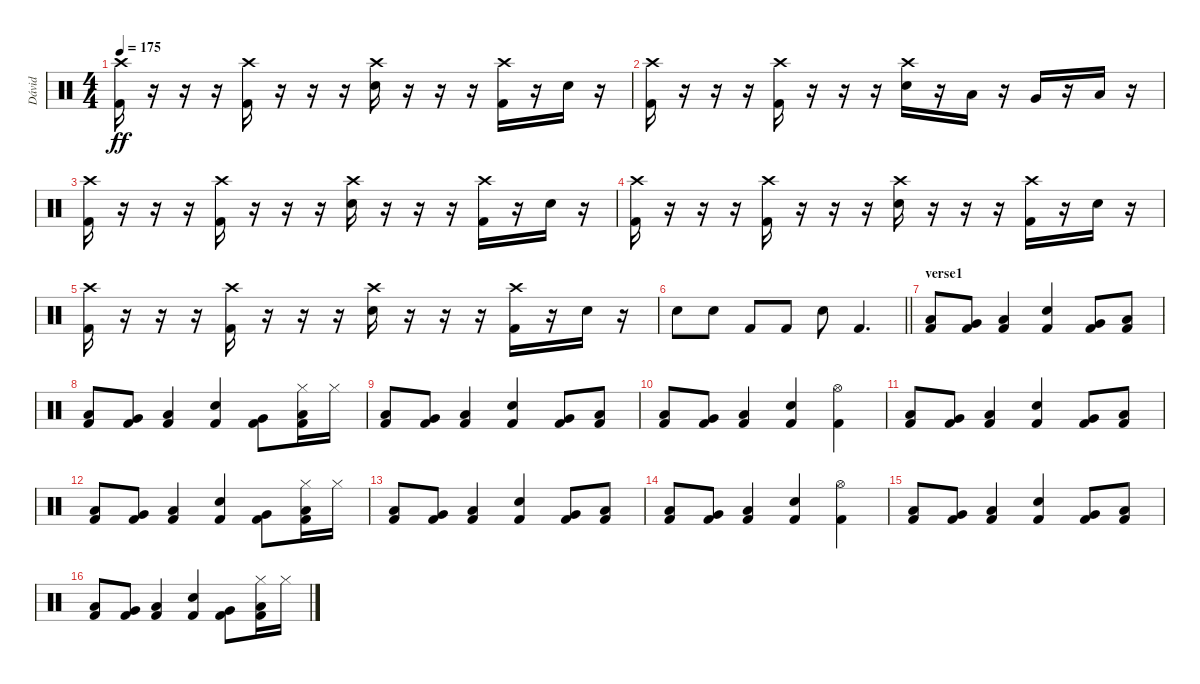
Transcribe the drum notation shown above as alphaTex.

\track ("Dávid" "Dávid") {instrument percussion}
\staff {score}
\articulation defaults
\ts (4 4)
\tempo 175
\clef neutral
\ks c
("Crash high (hit)" "Kick (hit) 2").16{dy ff} r.16 r.16 r.16 ("Crash high (hit)" "Kick (hit) 2").16 r.16 r.16 r.16 ("Crash high (hit)" "Electric Snare (hit)").16 r.16 r.16 r.16 ("Crash high (hit)" "Kick (hit) 2").16 r.16 "Electric Snare (hit)".16 r.16 |
("Crash high (hit)" "Kick (hit) 2").16 r.16 r.16 r.16 ("Crash high (hit)" "Kick (hit) 2").16 r.16 r.16 r.16 ("Crash high (hit)" "Electric Snare (hit)").16 r.16 "Low Tom (hit)".16 r.16 "Very Low Tom (hit)".16 r.16 "Low Floor Tom (hit)".16 r.16 |
("Crash high (hit)" "Kick (hit) 2").16 r.16 r.16 r.16 ("Crash high (hit)" "Kick (hit) 2").16 r.16 r.16 r.16 ("Crash high (hit)" "Electric Snare (hit)").16 r.16 r.16 r.16 ("Crash high (hit)" "Kick (hit) 2").16 r.16 "Electric Snare (hit)".16 r.16 |
("Crash high (hit)" "Kick (hit) 2").16 r.16 r.16 r.16 ("Crash high (hit)" "Kick (hit) 2").16 r.16 r.16 r.16 ("Crash high (hit)" "Electric Snare (hit)").16 r.16 r.16 r.16 ("Crash high (hit)" "Kick (hit) 2").16 r.16 "Electric Snare (hit)".16 r.16 |
("Crash high (hit)" "Kick (hit) 2").16 r.16 r.16 r.16 ("Crash high (hit)" "Kick (hit) 2").16 r.16 r.16 r.16 ("Crash high (hit)" "Electric Snare (hit)").16 r.16 r.16 r.16 ("Crash high (hit)" "Kick (hit) 2").16 r.16 "Electric Snare (hit)".16 r.16 |
\barLineRight lightlight "Electric Snare (hit)".8 "Electric Snare (hit)".8 "Kick (hit) 2".8 "Kick (hit) 2".8 "Electric Snare (hit)".8 "Kick (hit) 2".4{d}
|
\section ("" "verse1")
("Low Tom (hit)" "Kick (hit) 2").8 ("Very Low Tom (hit)" "Kick (hit) 2").8 ("Low Floor Tom (hit)" "Kick (hit) 2").4 ("Electric Snare (hit)" "Kick (hit) 2").4 ("Very Low Tom (hit)" "Kick (hit) 2").8 ("Low Floor Tom (hit)" "Kick (hit) 2").8 |
("Low Tom (hit)" "Kick (hit) 2").8 ("Very Low Tom (hit)" "Kick (hit) 2").8 ("Low Floor Tom (hit)" "Kick (hit) 2").4 ("Electric Snare (hit)" "Kick (hit) 2").4 ("Very Low Tom (hit)" "Kick (hit) 2").8 ("Low Floor Tom (hit)" "Hi-Hat (closed)" "Kick (hit) 2").16 "Hi-Hat (closed)".16 |
("Low Tom (hit)" "Kick (hit) 2").8 ("Very Low Tom (hit)" "Kick (hit) 2").8 ("Low Floor Tom (hit)" "Kick (hit) 2").4 ("Electric Snare (hit)" "Kick (hit) 2").4 ("Very Low Tom (hit)" "Kick (hit) 2").8 ("Low Floor Tom (hit)" "Kick (hit) 2").8 |
("Low Tom (hit)" "Kick (hit) 2").8 ("Very Low Tom (hit)" "Kick (hit) 2").8 ("Low Floor Tom (hit)" "Kick (hit) 2").4 ("Electric Snare (hit)" "Kick (hit) 2").4 ("Hi-Hat (open)" "Kick (hit) 2").4 |
("Low Tom (hit)" "Kick (hit) 2").8 ("Very Low Tom (hit)" "Kick (hit) 2").8 ("Low Floor Tom (hit)" "Kick (hit) 2").4 ("Electric Snare (hit)" "Kick (hit) 2").4 ("Very Low Tom (hit)" "Kick (hit) 2").8 ("Low Floor Tom (hit)" "Kick (hit) 2").8 |
("Low Tom (hit)" "Kick (hit) 2").8 ("Very Low Tom (hit)" "Kick (hit) 2").8 ("Low Floor Tom (hit)" "Kick (hit) 2").4 ("Electric Snare (hit)" "Kick (hit) 2").4 ("Very Low Tom (hit)" "Kick (hit) 2").8 ("Low Floor Tom (hit)" "Hi-Hat (closed)" "Kick (hit) 2").16 "Hi-Hat (closed)".16 |
("Low Tom (hit)" "Kick (hit) 2").8 ("Very Low Tom (hit)" "Kick (hit) 2").8 ("Low Floor Tom (hit)" "Kick (hit) 2").4 ("Electric Snare (hit)" "Kick (hit) 2").4 ("Very Low Tom (hit)" "Kick (hit) 2").8 ("Low Floor Tom (hit)" "Kick (hit) 2").8 |
("Low Tom (hit)" "Kick (hit) 2").8 ("Very Low Tom (hit)" "Kick (hit) 2").8 ("Low Floor Tom (hit)" "Kick (hit) 2").4 ("Electric Snare (hit)" "Kick (hit) 2").4 ("Hi-Hat (open)" "Kick (hit) 2").4 |
("Low Tom (hit)" "Kick (hit) 2").8 ("Very Low Tom (hit)" "Kick (hit) 2").8 ("Low Floor Tom (hit)" "Kick (hit) 2").4 ("Electric Snare (hit)" "Kick (hit) 2").4 ("Very Low Tom (hit)" "Kick (hit) 2").8 ("Low Floor Tom (hit)" "Kick (hit) 2").8 |
("Low Tom (hit)" "Kick (hit) 2").8 ("Very Low Tom (hit)" "Kick (hit) 2").8 ("Low Floor Tom (hit)" "Kick (hit) 2").4 ("Electric Snare (hit)" "Kick (hit) 2").4 ("Very Low Tom (hit)" "Kick (hit) 2").8 ("Low Floor Tom (hit)" "Hi-Hat (closed)" "Kick (hit) 2").16 "Hi-Hat (closed)".16
